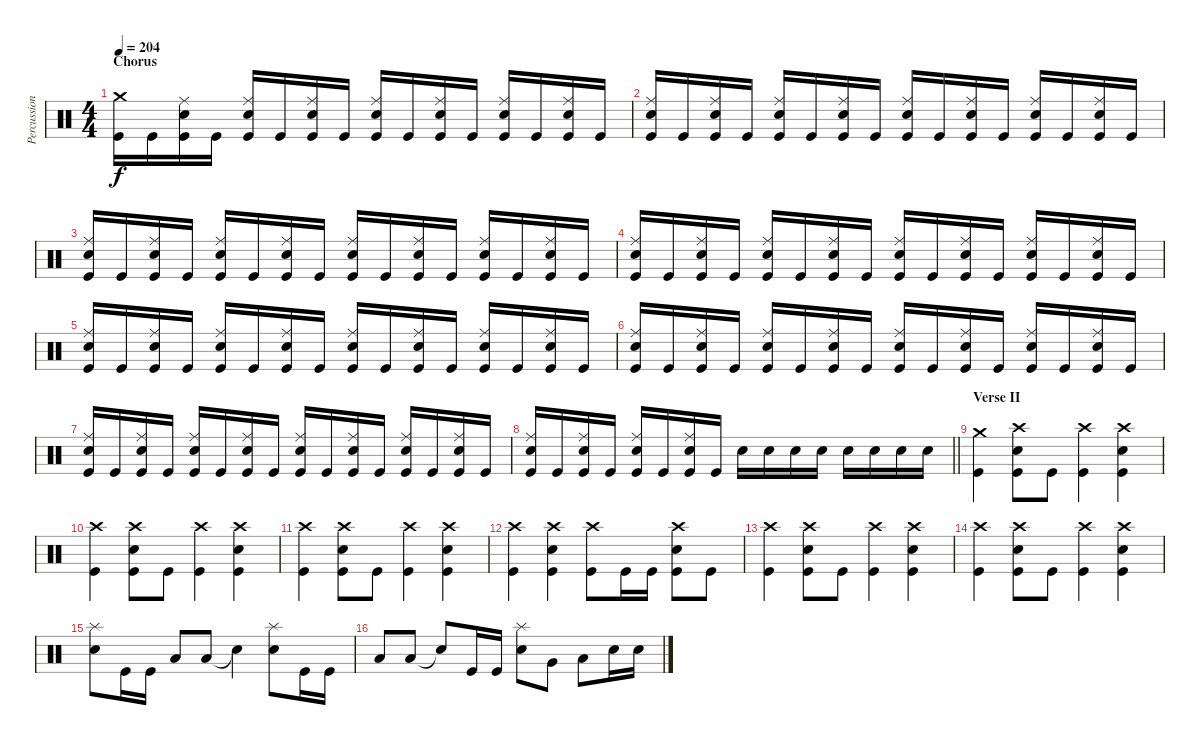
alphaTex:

\track ("Percussion" "Percussion") {instrument percussion}
\staff {score}
\articulation defaults
\ts (4 4)
\section ("" "Chorus")
\tempo 204
\clef neutral
\ks c
("Crash medium (hit)" "Kick (hit)").16{dy f} "Kick (hit)".16 ("Ride (middle)" "Electric Snare (hit)" "Kick (hit)").16 "Kick (hit)".16 ("Ride (middle)" "Electric Snare (hit)" "Kick (hit)").16 "Kick (hit)".16 ("Ride (middle)" "Electric Snare (hit)" "Kick (hit)").16 "Kick (hit)".16 ("Ride (middle)" "Electric Snare (hit)" "Kick (hit)").16 "Kick (hit)".16 ("Ride (middle)" "Electric Snare (hit)" "Kick (hit)").16 "Kick (hit)".16 ("Ride (middle)" "Electric Snare (hit)" "Kick (hit)").16 "Kick (hit)".16 ("Ride (middle)" "Electric Snare (hit)" "Kick (hit)").16 "Kick (hit)".16 |
("Ride (middle)" "Electric Snare (hit)" "Kick (hit)").16 "Kick (hit)".16 ("Ride (middle)" "Electric Snare (hit)" "Kick (hit)").16 "Kick (hit)".16 ("Ride (middle)" "Electric Snare (hit)" "Kick (hit)").16 "Kick (hit)".16 ("Ride (middle)" "Electric Snare (hit)" "Kick (hit)").16 "Kick (hit)".16 ("Ride (middle)" "Electric Snare (hit)" "Kick (hit)").16 "Kick (hit)".16 ("Ride (middle)" "Electric Snare (hit)" "Kick (hit)").16 "Kick (hit)".16 ("Ride (middle)" "Electric Snare (hit)" "Kick (hit)").16 "Kick (hit)".16 ("Ride (middle)" "Electric Snare (hit)" "Kick (hit)").16 "Kick (hit)".16 |
("Ride (middle)" "Electric Snare (hit)" "Kick (hit)").16 "Kick (hit)".16 ("Ride (middle)" "Electric Snare (hit)" "Kick (hit)").16 "Kick (hit)".16 ("Ride (middle)" "Electric Snare (hit)" "Kick (hit)").16 "Kick (hit)".16 ("Ride (middle)" "Electric Snare (hit)" "Kick (hit)").16 "Kick (hit)".16 ("Ride (middle)" "Electric Snare (hit)" "Kick (hit)").16 "Kick (hit)".16 ("Ride (middle)" "Electric Snare (hit)" "Kick (hit)").16 "Kick (hit)".16 ("Ride (middle)" "Electric Snare (hit)" "Kick (hit)").16 "Kick (hit)".16 ("Ride (middle)" "Electric Snare (hit)" "Kick (hit)").16 "Kick (hit)".16 |
("Ride (middle)" "Electric Snare (hit)" "Kick (hit)").16 "Kick (hit)".16 ("Ride (middle)" "Electric Snare (hit)" "Kick (hit)").16 "Kick (hit)".16 ("Ride (middle)" "Electric Snare (hit)" "Kick (hit)").16 "Kick (hit)".16 ("Ride (middle)" "Electric Snare (hit)" "Kick (hit)").16 "Kick (hit)".16 ("Ride (middle)" "Electric Snare (hit)" "Kick (hit)").16 "Kick (hit)".16 ("Ride (middle)" "Electric Snare (hit)" "Kick (hit)").16 "Kick (hit)".16 ("Ride (middle)" "Electric Snare (hit)" "Kick (hit)").16 "Kick (hit)".16 ("Ride (middle)" "Electric Snare (hit)" "Kick (hit)").16 "Kick (hit)".16 |
("Ride (middle)" "Electric Snare (hit)" "Kick (hit)").16 "Kick (hit)".16 ("Ride (middle)" "Electric Snare (hit)" "Kick (hit)").16 "Kick (hit)".16 ("Ride (middle)" "Electric Snare (hit)" "Kick (hit)").16 "Kick (hit)".16 ("Ride (middle)" "Electric Snare (hit)" "Kick (hit)").16 "Kick (hit)".16 ("Ride (middle)" "Electric Snare (hit)" "Kick (hit)").16 "Kick (hit)".16 ("Ride (middle)" "Electric Snare (hit)" "Kick (hit)").16 "Kick (hit)".16 ("Ride (middle)" "Electric Snare (hit)" "Kick (hit)").16 "Kick (hit)".16 ("Ride (middle)" "Electric Snare (hit)" "Kick (hit)").16 "Kick (hit)".16 |
("Ride (middle)" "Electric Snare (hit)" "Kick (hit)").16 "Kick (hit)".16 ("Ride (middle)" "Electric Snare (hit)" "Kick (hit)").16 "Kick (hit)".16 ("Ride (middle)" "Electric Snare (hit)" "Kick (hit)").16 "Kick (hit)".16 ("Ride (middle)" "Electric Snare (hit)" "Kick (hit)").16 "Kick (hit)".16 ("Ride (middle)" "Electric Snare (hit)" "Kick (hit)").16 "Kick (hit)".16 ("Ride (middle)" "Electric Snare (hit)" "Kick (hit)").16 "Kick (hit)".16 ("Ride (middle)" "Electric Snare (hit)" "Kick (hit)").16 "Kick (hit)".16 ("Ride (middle)" "Electric Snare (hit)" "Kick (hit)").16 "Kick (hit)".16 |
("Ride (middle)" "Electric Snare (hit)" "Kick (hit)").16 "Kick (hit)".16 ("Ride (middle)" "Electric Snare (hit)" "Kick (hit)").16 "Kick (hit)".16 ("Ride (middle)" "Electric Snare (hit)" "Kick (hit)").16 "Kick (hit)".16 ("Ride (middle)" "Electric Snare (hit)" "Kick (hit)").16 "Kick (hit)".16 ("Ride (middle)" "Electric Snare (hit)" "Kick (hit)").16 "Kick (hit)".16 ("Ride (middle)" "Electric Snare (hit)" "Kick (hit)").16 "Kick (hit)".16 ("Ride (middle)" "Electric Snare (hit)" "Kick (hit)").16 "Kick (hit)".16 ("Ride (middle)" "Electric Snare (hit)" "Kick (hit)").16 "Kick (hit)".16 |
\barLineRight lightlight
("Ride (middle)" "Electric Snare (hit)" "Kick (hit)").16 "Kick (hit)".16 ("Ride (middle)" "Electric Snare (hit)" "Kick (hit)").16 "Kick (hit)".16 ("Ride (middle)" "Electric Snare (hit)" "Kick (hit)").16 "Kick (hit)".16 ("Ride (middle)" "Electric Snare (hit)" "Kick (hit)").16 "Kick (hit)".16 "Electric Snare (hit)".16 "Electric Snare (hit)".16 "Electric Snare (hit)".16 "Electric Snare (hit)".16 "Electric Snare (hit)".16 "Electric Snare (hit)".16 "Electric Snare (hit)".16 "Electric Snare (hit)".16 |
\section ("" "Verse II")
("Crash medium (hit)" "Kick (hit)").4 ("Crash high (hit)" "Electric Snare (hit)" "Kick (hit)").8 "Kick (hit)".8 ("Crash high (hit)" "Kick (hit)").4 ("Crash high (hit)" "Electric Snare (hit)" "Kick (hit)").4 |
("Crash high (hit)" "Kick (hit)").4 ("Crash high (hit)" "Electric Snare (hit)" "Kick (hit)").8 "Kick (hit)".8 ("Crash high (hit)" "Kick (hit)").4 ("Crash high (hit)" "Electric Snare (hit)" "Kick (hit)").4 |
("Crash high (hit)" "Kick (hit)").4 ("Crash high (hit)" "Electric Snare (hit)" "Kick (hit)").8 "Kick (hit)".8 ("Crash high (hit)" "Kick (hit)").4 ("Crash high (hit)" "Electric Snare (hit)" "Kick (hit)").4 |
("Crash high (hit)" "Kick (hit)").4 ("Crash high (hit)" "Electric Snare (hit)" "Kick (hit)").4 ("Crash high (hit)" "Kick (hit)").8 "Kick (hit)".16 "Kick (hit)".16 ("Crash high (hit)" "Electric Snare (hit)" "Kick (hit)").8 "Kick (hit)".8 |
("Crash high (hit)" "Kick (hit)").4 ("Crash high (hit)" "Electric Snare (hit)" "Kick (hit)").8 "Kick (hit)".8 ("Crash high (hit)" "Kick (hit)").4 ("Crash high (hit)" "Electric Snare (hit)" "Kick (hit)").4 |
("Crash high (hit)" "Kick (hit)").4 ("Crash high (hit)" "Electric Snare (hit)" "Kick (hit)").8 "Kick (hit)".8 ("Crash high (hit)" "Kick (hit)").4 ("Crash high (hit)" "Electric Snare (hit)" "Kick (hit)").4 |
("Splash (hit)" "Electric Snare (hit)").8 "Kick (hit)".16 "Kick (hit)".16 "Low Floor Tom (hit)".8 "Low Floor Tom (hit)".8 "Snare (hit)"{t}.4 ("Splash (hit)" "Electric Snare (hit)").8 "Kick (hit)".16 "Kick (hit)".16 |
"Low Floor Tom (hit)".8 "Low Floor Tom (hit)".8 "Snare (hit)"{t}.8 "Kick (hit)".16 "Kick (hit)".16 ("Splash (hit)" "Electric Snare (hit)").8 "Very Low Tom (hit)".8 "Low Floor Tom (hit)".8 "Electric Snare (hit)".16 "Electric Snare (hit)".16
